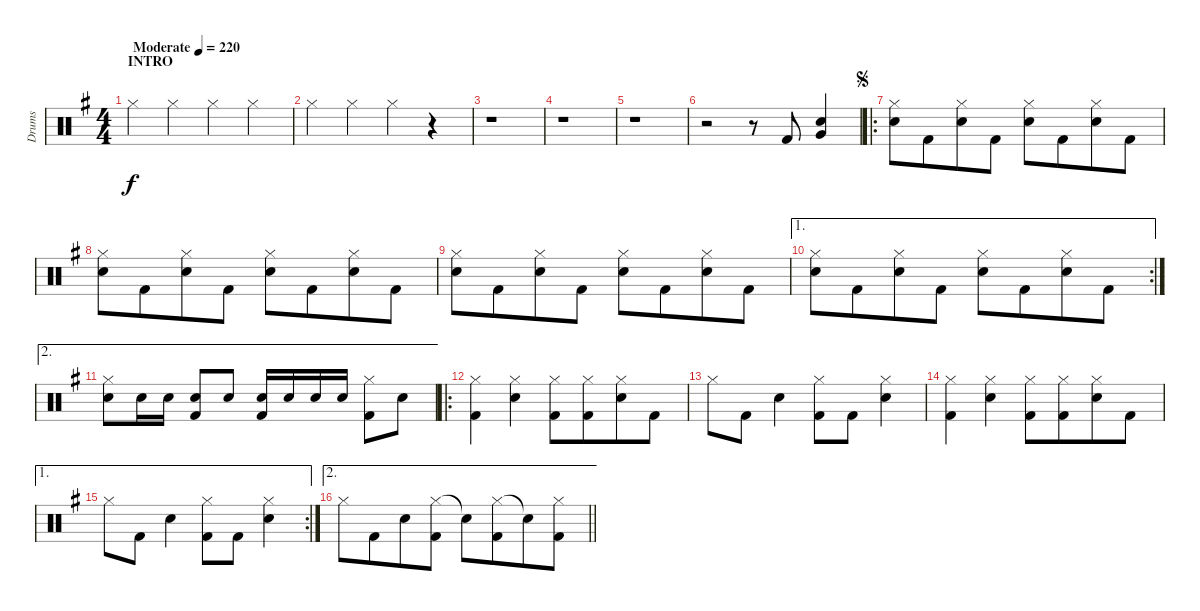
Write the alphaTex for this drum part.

\track ("Drums" "Drums") {instrument percussion}
\staff {score}
\articulation defaults
\ts (4 4)
\section ("" "INTRO")
\tempo (220 "Moderate")
\clef neutral
\ks eminor "Hi-Hat (closed)".4{dy f} "Hi-Hat (closed)".4 "Hi-Hat (closed)".4 "Hi-Hat (closed)".4
|
"Hi-Hat (closed)".4 "Hi-Hat (closed)".4 "Hi-Hat (closed)".4 r.4 |
r.1 |
r.1 |
r.1 |
r.2 r.8 "Kick (hit) 2".8 ("Very Low Tom (hit)" "Electric Snare (hit)").4 |
\ro
\jump segno
("Hi-Hat (closed)" "Electric Snare (hit)").8 "Kick (hit) 2".8{beam merge} ("Hi-Hat (closed)" "Electric Snare (hit)").8 "Kick (hit) 2".8 ("Hi-Hat (closed)" "Electric Snare (hit)").8 "Kick (hit) 2".8{beam merge} ("Hi-Hat (closed)" "Electric Snare (hit)").8 "Kick (hit) 2".8 |
("Hi-Hat (closed)" "Electric Snare (hit)").8 "Kick (hit) 2".8{beam merge} ("Hi-Hat (closed)" "Electric Snare (hit)").8 "Kick (hit) 2".8 ("Hi-Hat (closed)" "Electric Snare (hit)").8 "Kick (hit) 2".8{beam merge} ("Hi-Hat (closed)" "Electric Snare (hit)").8 "Kick (hit) 2".8 |
("Hi-Hat (closed)" "Electric Snare (hit)").8 "Kick (hit) 2".8{beam merge} ("Hi-Hat (closed)" "Electric Snare (hit)").8 "Kick (hit) 2".8 ("Hi-Hat (closed)" "Electric Snare (hit)").8 "Kick (hit) 2".8{beam merge} ("Hi-Hat (closed)" "Electric Snare (hit)").8 "Kick (hit) 2".8 |
\ae 1
\rc 2
("Hi-Hat (closed)" "Electric Snare (hit)").8 "Kick (hit) 2".8{beam merge} ("Hi-Hat (closed)" "Electric Snare (hit)").8 "Kick (hit) 2".8 ("Hi-Hat (closed)" "Electric Snare (hit)").8 "Kick (hit) 2".8{beam merge} ("Hi-Hat (closed)" "Electric Snare (hit)").8 "Kick (hit) 2".8 |
\ae 2
("Hi-Hat (closed)" "Electric Snare (hit)").8 "Electric Snare (hit)".16 "Electric Snare (hit)".16 ("Electric Snare (hit)" "Kick (hit) 2").8 "Electric Snare (hit)".8 ("Electric Snare (hit)" "Kick (hit) 2").16 "Electric Snare (hit)".16 "Electric Snare (hit)".16 "Electric Snare (hit)".16 ("Hi-Hat (closed)" "Kick (hit) 2").8 "Electric Snare (hit)".8 |
\ro
("Hi-Hat (closed)" "Kick (hit) 2").4 ("Hi-Hat (closed)" "Electric Snare (hit)").4 ("Hi-Hat (closed)" "Kick (hit) 2").8 ("Hi-Hat (closed)" "Kick (hit) 2").8{beam merge} ("Hi-Hat (closed)" "Electric Snare (hit)").8 "Kick (hit) 2".8 |
"Hi-Hat (closed)".8 "Kick (hit) 2".8 "Electric Snare (hit)".4 ("Hi-Hat (closed)" "Kick (hit) 2").8 "Kick (hit) 2".8 ("Hi-Hat (closed)" "Electric Snare (hit)").4 |
("Hi-Hat (closed)" "Kick (hit) 2").4 ("Hi-Hat (closed)" "Electric Snare (hit)").4 ("Hi-Hat (closed)" "Kick (hit) 2").8 ("Hi-Hat (closed)" "Kick (hit) 2").8{beam merge} ("Hi-Hat (closed)" "Electric Snare (hit)").8 "Kick (hit) 2".8 |
\ae 1
\rc 2 "Hi-Hat (closed)".8 "Kick (hit) 2".8 "Electric Snare (hit)".4
("Hi-Hat (closed)" "Kick (hit) 2").8 "Kick (hit) 2".8 ("Hi-Hat (closed)" "Electric Snare (hit)").4 |
\ae 2
\barLineRight lightlight "Hi-Hat (closed)".8 "Kick (hit) 2".8{beam merge} "Electric Snare (hit)".8
("Hi-Hat (closed)" "Kick (hit) 2").8 "Snare (hit)"{t}.8 ("Hi-Hat (closed)" "Kick (hit) 2").8{beam merge} "Snare (hit)"{t}.8 ("Hi-Hat (closed)" "Kick (hit) 2").8
